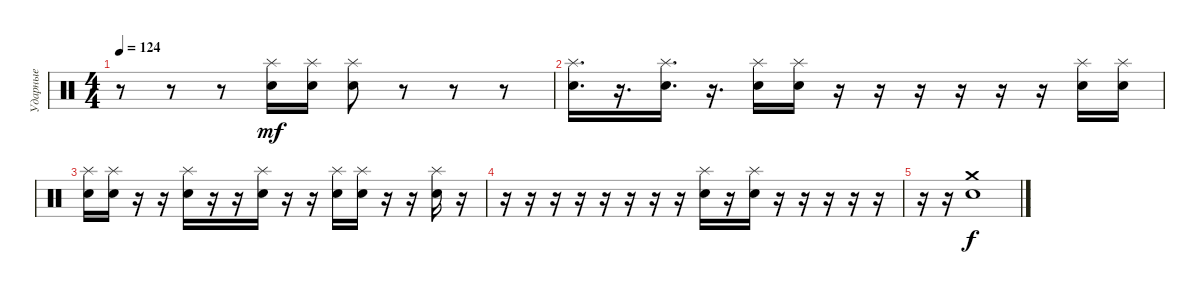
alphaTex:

\track ("Ударные" "Ударные") {instrument percussion bank 127}
\staff
\articulation defaults
\ts (4 4)
\tempo 124
\clef neutral
\ks c
r.8{dy f} r.8 r.8 ("Snare (hit) 2" "Splash (hit)").16{dy mf} ("Snare (hit) 2" "Splash (hit)").16 ("Snare (hit) 2" "Splash (hit)").8 r.8 r.8 r.8 |
("Snare (hit) 2" "Splash (hit)").16{d} r.16{d} ("Snare (hit) 2" "Splash (hit)").16{d} r.16{d} ("Snare (hit) 2" "Splash (hit)").16 ("Snare (hit) 2" "Splash (hit)").16 r.16 r.16 r.16 r.16 r.16 r.16 ("Splash (hit)" "Snare (hit) 2").16 ("Splash (hit)" "Snare (hit) 2").16 |
("Splash (hit)" "Snare (hit) 2").16 ("Splash (hit)" "Snare (hit) 2").16 r.16 r.16 ("Splash (hit)" "Snare (hit) 2").16 r.16 r.16 ("Splash (hit)" "Snare (hit) 2").16 r.16 r.16 ("Splash (hit)" "Snare (hit) 2").16 ("Splash (hit)" "Snare (hit) 2").16 r.16 r.16 ("Snare (hit) 2" "Splash (hit)").16 r.16 |
r.16 r.16 r.16 r.16 r.16 r.16 r.16 r.16 ("Snare (hit) 2" "Splash (hit)").16 r.16 ("Snare (hit) 2" "Splash (hit)").16 r.16 r.16 r.16 r.16 r.16 |
r.16 r.16 ("Crash medium (hit)" "Snare (hit) 2").1{dy f}
